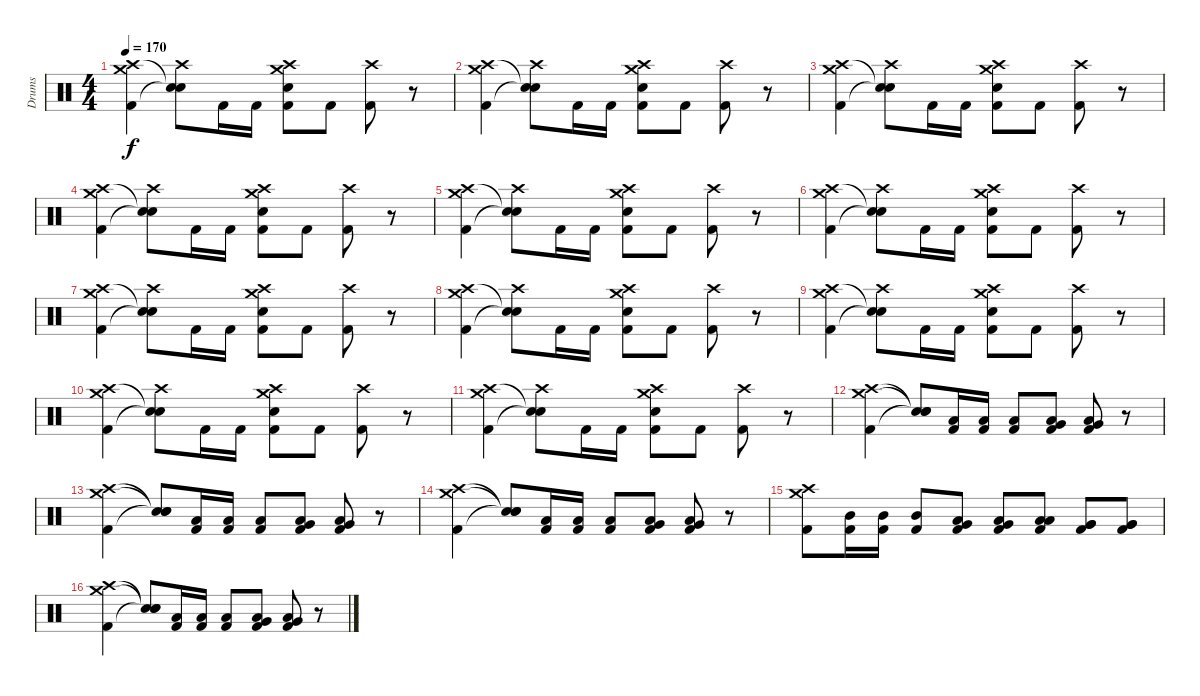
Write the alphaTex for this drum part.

\track ("Drums" "Drums") {instrument percussion}
\staff {score}
\articulation defaults
\ts (4 4)
\tempo 170
\clef neutral
\ks c
("Crash medium (hit)" "Crash high (hit)" "Kick (hit) 2").4{dy f} ("Crash high (hit)" "Snare (hit)"{t} "Snare (hit)"{t}).8 "Kick (hit) 2".16 "Kick (hit) 2".16 ("Crash high (hit)" "Snare (hit) 2" "Crash medium (hit)" "Kick (hit) 2").8 "Kick (hit) 2".8 ("Crash high (hit)" "Kick (hit) 2").8 r.8 |
("Crash medium (hit)" "Crash high (hit)" "Kick (hit) 2").4 ("Crash high (hit)" "Snare (hit)"{t} "Snare (hit)"{t}).8 "Kick (hit) 2".16 "Kick (hit) 2".16 ("Crash high (hit)" "Snare (hit) 2" "Crash medium (hit)" "Kick (hit) 2").8 "Kick (hit) 2".8 ("Crash high (hit)" "Kick (hit) 2").8 r.8 |
("Crash medium (hit)" "Crash high (hit)" "Kick (hit) 2").4 ("Crash high (hit)" "Snare (hit)"{t} "Snare (hit)"{t}).8 "Kick (hit) 2".16 "Kick (hit) 2".16 ("Crash high (hit)" "Snare (hit) 2" "Crash medium (hit)" "Kick (hit) 2").8 "Kick (hit) 2".8 ("Crash high (hit)" "Kick (hit) 2").8 r.8 |
("Crash medium (hit)" "Crash high (hit)" "Kick (hit) 2").4 ("Crash high (hit)" "Snare (hit)"{t} "Snare (hit)"{t}).8 "Kick (hit) 2".16 "Kick (hit) 2".16 ("Crash high (hit)" "Snare (hit) 2" "Crash medium (hit)" "Kick (hit) 2").8 "Kick (hit) 2".8 ("Crash high (hit)" "Kick (hit) 2").8 r.8 |
("Crash medium (hit)" "Crash high (hit)" "Kick (hit) 2").4 ("Crash high (hit)" "Snare (hit)"{t} "Snare (hit)"{t}).8 "Kick (hit) 2".16 "Kick (hit) 2".16 ("Crash high (hit)" "Snare (hit) 2" "Crash medium (hit)" "Kick (hit) 2").8 "Kick (hit) 2".8 ("Crash high (hit)" "Kick (hit) 2").8 r.8 |
("Crash medium (hit)" "Crash high (hit)" "Kick (hit) 2").4 ("Crash high (hit)" "Snare (hit)"{t} "Snare (hit)"{t}).8 "Kick (hit) 2".16 "Kick (hit) 2".16 ("Crash high (hit)" "Snare (hit) 2" "Crash medium (hit)" "Kick (hit) 2").8 "Kick (hit) 2".8 ("Crash high (hit)" "Kick (hit) 2").8 r.8 |
("Crash medium (hit)" "Crash high (hit)" "Kick (hit) 2").4 ("Crash high (hit)" "Snare (hit)"{t} "Snare (hit)"{t}).8 "Kick (hit) 2".16 "Kick (hit) 2".16 ("Crash high (hit)" "Snare (hit) 2" "Crash medium (hit)" "Kick (hit) 2").8 "Kick (hit) 2".8 ("Crash high (hit)" "Kick (hit) 2").8 r.8 |
("Crash medium (hit)" "Crash high (hit)" "Kick (hit) 2").4 ("Crash high (hit)" "Snare (hit)"{t} "Snare (hit)"{t}).8 "Kick (hit) 2".16 "Kick (hit) 2".16 ("Crash high (hit)" "Snare (hit) 2" "Crash medium (hit)" "Kick (hit) 2").8 "Kick (hit) 2".8 ("Crash high (hit)" "Kick (hit) 2").8 r.8 |
("Crash medium (hit)" "Crash high (hit)" "Kick (hit) 2").4 ("Crash high (hit)" "Snare (hit)"{t} "Snare (hit)"{t}).8 "Kick (hit) 2".16 "Kick (hit) 2".16 ("Crash high (hit)" "Snare (hit) 2" "Crash medium (hit)" "Kick (hit) 2").8 "Kick (hit) 2".8 ("Crash high (hit)" "Kick (hit) 2").8 r.8 |
("Crash medium (hit)" "Crash high (hit)" "Kick (hit) 2").4 ("Crash high (hit)" "Snare (hit)"{t} "Snare (hit)"{t}).8 "Kick (hit) 2".16 "Kick (hit) 2".16 ("Crash high (hit)" "Snare (hit) 2" "Crash medium (hit)" "Kick (hit) 2").8 "Kick (hit) 2".8 ("Crash high (hit)" "Kick (hit) 2").8 r.8 |
("Crash medium (hit)" "Crash high (hit)" "Kick (hit) 2").4 ("Crash high (hit)" "Snare (hit)"{t} "Snare (hit)"{t}).8 "Kick (hit) 2".16 "Kick (hit) 2".16 ("Crash high (hit)" "Snare (hit) 2" "Crash medium (hit)" "Kick (hit) 2").8 "Kick (hit) 2".8 ("Crash high (hit)" "Kick (hit) 2").8 r.8 |
("Crash medium (hit)" "Crash high (hit)" "Kick (hit) 2").4 ("Snare (hit)"{t} "Snare (hit)"{t} "Snare (hit)"{t}).8 ("Low Tom (hit)" "Kick (hit) 2").16 ("Low Tom (hit)" "Kick (hit) 2").16 ("Low Tom (hit)" "Kick (hit) 2").8 ("Low Tom (hit)" "Very Low Tom (hit)" "Kick (hit) 2").8 ("Low Tom (hit)" "Very Low Tom (hit)" "Kick (hit) 2").8 r.8 |
("Crash medium (hit)" "Crash high (hit)" "Kick (hit) 2").4 ("Snare (hit)"{t} "Snare (hit)"{t} "Snare (hit)"{t}).8 ("Low Tom (hit)" "Kick (hit) 2").16 ("Low Tom (hit)" "Kick (hit) 2").16 ("Low Tom (hit)" "Kick (hit) 2").8 ("Low Tom (hit)" "Very Low Tom (hit)" "Kick (hit) 2").8 ("Low Tom (hit)" "Very Low Tom (hit)" "Kick (hit) 2").8 r.8 |
("Crash medium (hit)" "Crash high (hit)" "Kick (hit) 2").4 ("Snare (hit)"{t} "Snare (hit)"{t} "Snare (hit)"{t}).8 ("Low Tom (hit)" "Kick (hit) 2").16 ("Low Tom (hit)" "Kick (hit) 2").16 ("Low Tom (hit)" "Kick (hit) 2").8 ("Low Tom (hit)" "Very Low Tom (hit)" "Kick (hit) 2").8 ("Low Tom (hit)" "Very Low Tom (hit)" "Kick (hit) 2").8 r.8 |
("Crash medium (hit)" "Crash high (hit)" "Kick (hit) 2").8 ("Mid Tom (hit)" "Kick (hit) 2").16 ("Mid Tom (hit)" "Kick (hit) 2").16 ("Mid Tom (hit)" "Kick (hit) 2").8 ("Low Tom (hit)" "Very Low Tom (hit)" "Kick (hit) 2").8 ("Low Tom (hit)" "Very Low Tom (hit)" "Kick (hit) 2").8 ("Low Tom (hit)" "Low Tom (hit)" "Kick (hit) 2").8 ("Very Low Tom (hit)" "Very Low Tom (hit)" "Kick (hit) 2").8 ("Very Low Tom (hit)" "Very Low Tom (hit)" "Kick (hit) 2").8 |
("Crash medium (hit)" "Crash high (hit)" "Kick (hit) 2").4 ("Snare (hit)"{t} "Snare (hit)"{t} "Snare (hit)"{t}).8 ("Low Tom (hit)" "Kick (hit) 2").16 ("Low Tom (hit)" "Kick (hit) 2").16 ("Low Tom (hit)" "Kick (hit) 2").8 ("Low Tom (hit)" "Very Low Tom (hit)" "Kick (hit) 2").8 ("Low Tom (hit)" "Very Low Tom (hit)" "Kick (hit) 2").8 r.8
